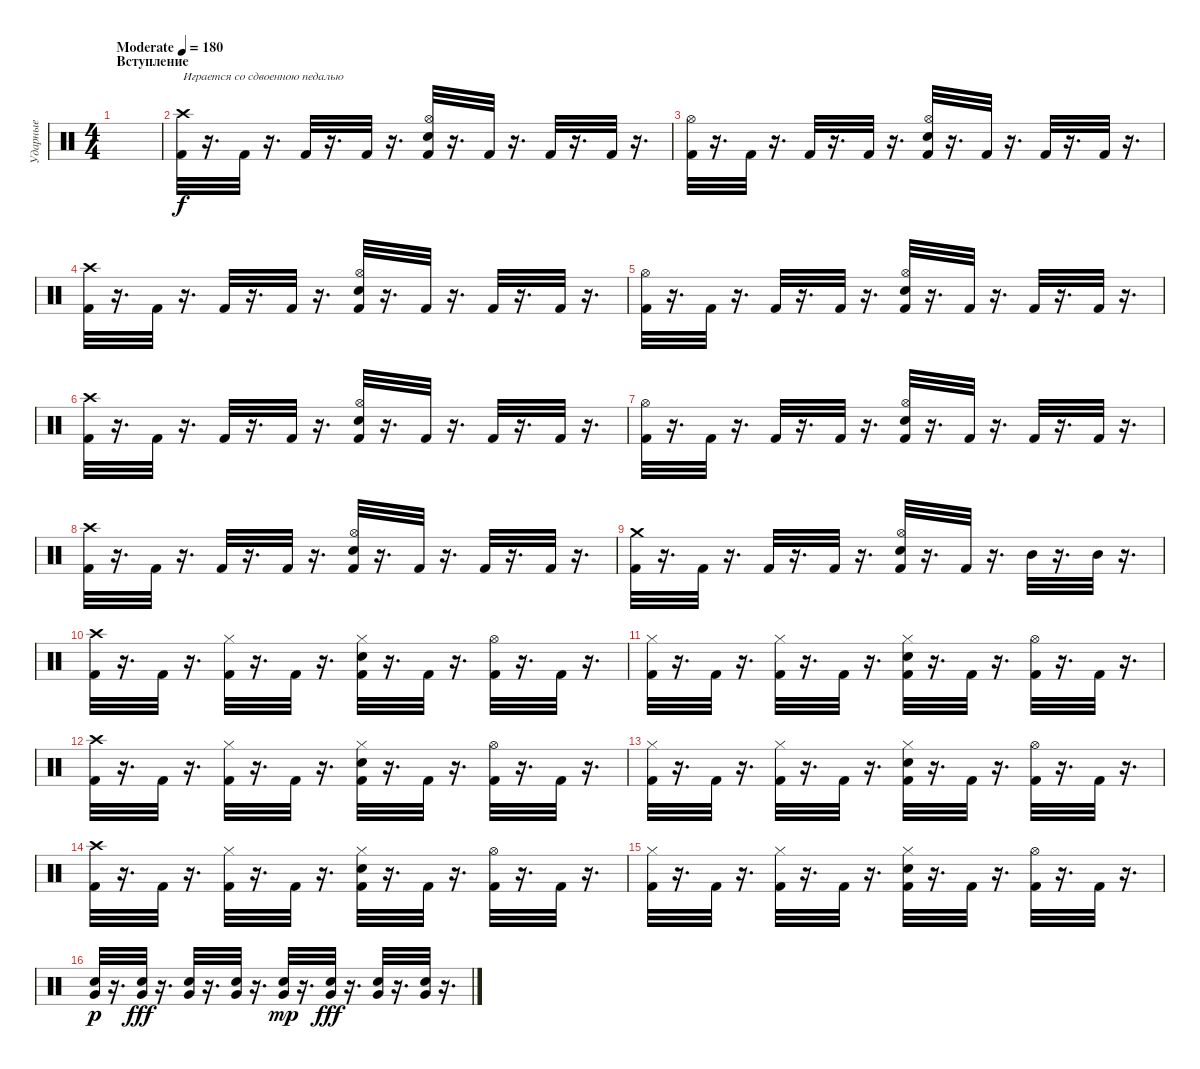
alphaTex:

\track ("Ударные" "Ударные") {instrument percussion}
\staff {score}
\articulation defaults
\ts (4 4)
\section ("" "Вступление")
\tempo (180 "Moderate")
\clef neutral
\ks c
|
("Crash high (hit)" "Kick (hit) 2").32{txt "Играется со сдвоенною педалью"} r.16{d} "Kick (hit) 2".32 r.16{d} "Kick (hit) 2".32 r.16{d} "Kick (hit) 2".32 r.16{d} ("Kick (hit) 2" "Hi-Hat (open)" "Snare (hit) 2").32 r.16{d} "Kick (hit) 2".32 r.16{d} "Kick (hit) 2".32 r.16{d} "Kick (hit) 2".32 r.16{d} |
("Hi-Hat (open)" "Kick (hit) 2").32 r.16{d} "Kick (hit) 2".32 r.16{d} "Kick (hit) 2".32 r.16{d} "Kick (hit) 2".32 r.16{d} ("Kick (hit) 2" "Snare (hit) 2" "Hi-Hat (open)").32 r.16{d} "Kick (hit) 2".32 r.16{d} "Kick (hit) 2".32 r.16{d} "Kick (hit) 2".32 r.16{d} |
("Crash high (hit)" "Kick (hit) 2").32 r.16{d} "Kick (hit) 2".32 r.16{d} "Kick (hit) 2".32 r.16{d} "Kick (hit) 2".32 r.16{d} ("Snare (hit) 2" "Hi-Hat (open)" "Kick (hit) 2").32 r.16{d} "Kick (hit) 2".32 r.16{d} "Kick (hit) 2".32 r.16{d} "Kick (hit) 2".32 r.16{d} |
("Hi-Hat (open)" "Kick (hit) 2").32 r.16{d} "Kick (hit) 2".32 r.16{d} "Kick (hit) 2".32 r.16{d} "Kick (hit) 2".32 r.16{d} ("Hi-Hat (open)" "Kick (hit) 2" "Snare (hit) 2").32 r.16{d} "Kick (hit) 2".32 r.16{d} "Kick (hit) 2".32 r.16{d} "Kick (hit) 2".32 r.16{d} |
("Crash high (hit)" "Kick (hit) 2").32 r.16{d} "Kick (hit) 2".32 r.16{d} "Kick (hit) 2".32 r.16{d} "Kick (hit) 2".32 r.16{d} ("Kick (hit) 2" "Hi-Hat (open)" "Snare (hit) 2").32 r.16{d} "Kick (hit) 2".32 r.16{d} "Kick (hit) 2".32 r.16{d} "Kick (hit) 2".32 r.16{d} |
("Hi-Hat (open)" "Kick (hit) 2").32 r.16{d} "Kick (hit) 2".32 r.16{d} "Kick (hit) 2".32 r.16{d} "Kick (hit) 2".32 r.16{d} ("Kick (hit) 2" "Snare (hit) 2" "Hi-Hat (open)").32 r.16{d} "Kick (hit) 2".32 r.16{d} "Kick (hit) 2".32 r.16{d} "Kick (hit) 2".32 r.16{d} |
("Kick (hit) 2" "Crash high (hit)").32 r.16{d} "Kick (hit) 2".32 r.16{d} "Kick (hit) 2".32 r.16{d} "Kick (hit) 2".32 r.16{d} ("Kick (hit) 2" "Snare (hit) 2" "Hi-Hat (open)").32 r.16{d} "Kick (hit) 2".32 r.16{d} "Kick (hit) 2".32 r.16{d} "Kick (hit) 2".32 r.16{d} |
("Kick (hit) 2" "Crash medium (hit)").32 r.16{d} "Kick (hit) 2".32 r.16{d} "Kick (hit) 2".32 r.16{d} "Kick (hit) 2".32 r.16{d} ("Kick (hit) 2" "Hi-Hat (open)" "Snare (hit) 2").32 r.16{d} "Kick (hit) 2".32 r.16{d} "Mid Tom (hit)".32 r.16{d} "Mid Tom (hit)".32 r.16{d} |
("Crash high (hit)" "Kick (hit) 2").32 r.16{d} "Kick (hit) 2".32 r.16{d} ("Kick (hit) 2" "Hi-Hat (closed)").32 r.16{d} "Kick (hit) 2".32 r.16{d} ("Hi-Hat (closed)" "Kick (hit) 2" "Snare (hit) 2").32 r.16{d} "Kick (hit) 2".32 r.16{d} ("Hi-Hat (open)" "Kick (hit) 2").32 r.16{d} "Kick (hit) 2".32 r.16{d} |
("Kick (hit) 2" "Hi-Hat (closed)").32 r.16{d} "Kick (hit) 2".32 r.16{d} ("Hi-Hat (closed)" "Kick (hit) 2").32 r.16{d} "Kick (hit) 2".32 r.16{d} ("Snare (hit) 2" "Hi-Hat (closed)" "Kick (hit) 2").32 r.16{d} "Kick (hit) 2".32 r.16{d} ("Hi-Hat (open)" "Kick (hit) 2").32 r.16{d} "Kick (hit) 2".32 r.16{d} |
("Kick (hit) 2" "Crash high (hit)").32 r.16{d} "Kick (hit) 2".32 r.16{d} ("Hi-Hat (closed)" "Kick (hit) 2").32 r.16{d} "Kick (hit) 2".32 r.16{d} ("Kick (hit) 2" "Snare (hit) 2" "Hi-Hat (closed)").32 r.16{d} "Kick (hit) 2".32 r.16{d} ("Kick (hit) 2" "Hi-Hat (open)").32 r.16{d} "Kick (hit) 2".32 r.16{d} |
("Hi-Hat (closed)" "Kick (hit) 2").32 r.16{d} "Kick (hit) 2".32 r.16{d} ("Hi-Hat (closed)" "Kick (hit) 2").32 r.16{d} "Kick (hit) 2".32 r.16{d} ("Kick (hit) 2" "Snare (hit) 2" "Hi-Hat (closed)").32 r.16{d} "Kick (hit) 2".32 r.16{d} ("Kick (hit) 2" "Hi-Hat (open)").32 r.16{d} "Kick (hit) 2".32 r.16{d} |
("Crash high (hit)" "Kick (hit) 2").32 r.16{d} "Kick (hit) 2".32 r.16{d} ("Hi-Hat (closed)" "Kick (hit) 2").32 r.16{d} "Kick (hit) 2".32 r.16{d} ("Hi-Hat (closed)" "Kick (hit) 2" "Snare (hit) 2").32 r.16{d} "Kick (hit) 2".32 r.16{d} ("Hi-Hat (open)" "Kick (hit) 2").32 r.16{d} "Kick (hit) 2".32 r.16{d} |
("Kick (hit) 2" "Hi-Hat (closed)").32 r.16{d} "Kick (hit) 2".32 r.16{d} ("Kick (hit) 2" "Hi-Hat (closed)").32 r.16{d} "Kick (hit) 2".32 r.16{d} ("Kick (hit) 2" "Snare (hit) 2" "Hi-Hat (closed)").32 r.16{d} "Kick (hit) 2".32 r.16{d} ("Hi-Hat (open)" "Kick (hit) 2").32 r.16{d} "Kick (hit) 2".32 r.16{d} |
("Snare (hit) 2" "Very Low Tom (hit)").32{dy p} r.16{d} ("Very Low Tom (hit)" "Snare (hit) 2").32{dy fff} r.16{d} ("Very Low Tom (hit)" "Snare (hit) 2").32 r.16{d} ("Very Low Tom (hit)" "Snare (hit) 2").32 r.16{d} ("Snare (hit) 2" "Very Low Tom (hit)").32{dy mp} r.16{d} ("Very Low Tom (hit)" "Snare (hit) 2").32{dy fff} r.16{d} ("Very Low Tom (hit)" "Snare (hit) 2").32 r.16{d} ("Very Low Tom (hit)" "Snare (hit) 2").32 r.16{d}
